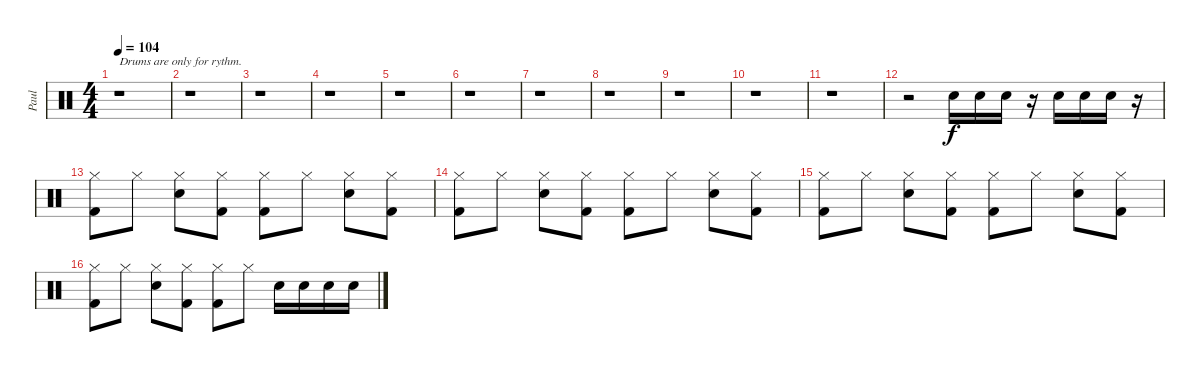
\track ("Paul" "Paul") {instrument percussion}
\staff {score}
\articulation defaults
\ts (4 4)
\tempo 104
\clef neutral
\ks c
r.1{txt "Drums are only for rythm." dy f} |
r.1 |
r.1 |
r.1 |
r.1 |
r.1 |
r.1 |
r.1 |
r.1 |
r.1 |
r.1 |
r.2 "Snare (hit) 2".16 "Snare (hit) 2".16 "Snare (hit) 2".16 r.16 "Snare (hit) 2".16 "Snare (hit) 2".16 "Snare (hit) 2".16 r.16 |
("Hi-Hat (closed)" "Kick (hit) 2").8 "Hi-Hat (closed)".8 ("Hi-Hat (closed)" "Snare (hit) 2").8 ("Hi-Hat (closed)" "Kick (hit) 2").8 ("Hi-Hat (closed)" "Kick (hit) 2").8 "Hi-Hat (closed)".8 ("Hi-Hat (closed)" "Snare (hit) 2").8 ("Hi-Hat (closed)" "Kick (hit) 2").8 |
("Hi-Hat (closed)" "Kick (hit) 2").8 "Hi-Hat (closed)".8 ("Hi-Hat (closed)" "Snare (hit) 2").8 ("Hi-Hat (closed)" "Kick (hit) 2").8 ("Hi-Hat (closed)" "Kick (hit) 2").8 "Hi-Hat (closed)".8 ("Hi-Hat (closed)" "Snare (hit) 2").8 ("Hi-Hat (closed)" "Kick (hit) 2").8 |
("Hi-Hat (closed)" "Kick (hit) 2").8 "Hi-Hat (closed)".8 ("Hi-Hat (closed)" "Snare (hit) 2").8 ("Hi-Hat (closed)" "Kick (hit) 2").8 ("Hi-Hat (closed)" "Kick (hit) 2").8 "Hi-Hat (closed)".8 ("Hi-Hat (closed)" "Snare (hit) 2").8 ("Hi-Hat (closed)" "Kick (hit) 2").8 |
("Hi-Hat (closed)" "Kick (hit) 2").8 "Hi-Hat (closed)".8 ("Hi-Hat (closed)" "Snare (hit) 2").8 ("Hi-Hat (closed)" "Kick (hit) 2").8 ("Hi-Hat (closed)" "Kick (hit) 2").8 "Hi-Hat (closed)".8 "Snare (hit) 2".16 "Snare (hit) 2".16 "Snare (hit) 2".16 "Snare (hit) 2".16
